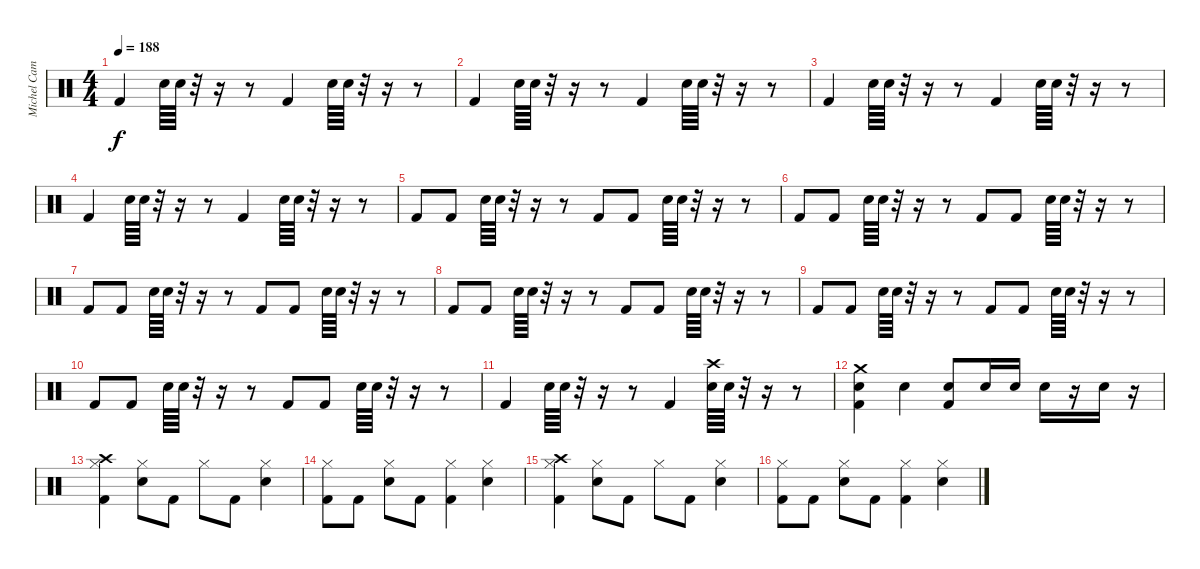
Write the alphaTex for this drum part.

\track ("Michel Camiade" "Michel Cam") {instrument percussion}
\staff {score}
\articulation defaults
\ts (4 4)
\tempo 188
\clef neutral
\ks c "Kick (hit) 2".4{dy f} "Snare (hit) 2".64 "Snare (hit) 2".64
r.32 r.16 r.8 "Kick (hit) 2".4 "Snare (hit) 2".64 "Snare (hit) 2".64 r.32 r.16 r.8 |
"Kick (hit) 2".4 "Snare (hit) 2".64 "Snare (hit) 2".64 r.32 r.16 r.8 "Kick (hit) 2".4 "Snare (hit) 2".64 "Snare (hit) 2".64 r.32 r.16 r.8 |
"Kick (hit) 2".4 "Snare (hit) 2".64 "Snare (hit) 2".64 r.32 r.16 r.8 "Kick (hit) 2".4 "Snare (hit) 2".64 "Snare (hit) 2".64 r.32 r.16 r.8 |
"Kick (hit) 2".4 "Snare (hit) 2".64 "Snare (hit) 2".64 r.32 r.16 r.8 "Kick (hit) 2".4 "Snare (hit) 2".64 "Snare (hit) 2".64 r.32 r.16 r.8 |
"Kick (hit) 2".8 "Kick (hit) 2".8 "Snare (hit) 2".64 "Snare (hit) 2".64 r.32 r.16 r.8 "Kick (hit) 2".8 "Kick (hit) 2".8 "Snare (hit) 2".64 "Snare (hit) 2".64 r.32 r.16 r.8 |
"Kick (hit) 2".8 "Kick (hit) 2".8 "Snare (hit) 2".64 "Snare (hit) 2".64 r.32 r.16 r.8 "Kick (hit) 2".8 "Kick (hit) 2".8 "Snare (hit) 2".64 "Snare (hit) 2".64 r.32 r.16 r.8 |
"Kick (hit) 2".8 "Kick (hit) 2".8 "Snare (hit) 2".64 "Snare (hit) 2".64 r.32 r.16 r.8 "Kick (hit) 2".8 "Kick (hit) 2".8 "Snare (hit) 2".64 "Snare (hit) 2".64 r.32 r.16 r.8 |
"Kick (hit) 2".8 "Kick (hit) 2".8 "Snare (hit) 2".64 "Snare (hit) 2".64 r.32 r.16 r.8 "Kick (hit) 2".8 "Kick (hit) 2".8 "Snare (hit) 2".64 "Snare (hit) 2".64 r.32 r.16 r.8 |
"Kick (hit) 2".8 "Kick (hit) 2".8 "Snare (hit) 2".64 "Snare (hit) 2".64 r.32 r.16 r.8 "Kick (hit) 2".8 "Kick (hit) 2".8 "Snare (hit) 2".64 "Snare (hit) 2".64 r.32 r.16 r.8 |
"Kick (hit) 2".8 "Kick (hit) 2".8 "Snare (hit) 2".64 "Snare (hit) 2".64 r.32 r.16 r.8 "Kick (hit) 2".8 "Kick (hit) 2".8 "Snare (hit) 2".64 "Snare (hit) 2".64 r.32 r.16 r.8 |
"Kick (hit) 2".4 "Snare (hit) 2".64 "Snare (hit) 2".64 r.32 r.16 r.8 "Kick (hit) 2".4 ("Crash high (hit)" "Snare (hit) 2").64 "Snare (hit) 2".64 r.32 r.16 r.8 |
("Crash medium (hit)" "Snare (hit) 2" "Kick (hit) 2").4 "Snare (hit) 2".4 ("Snare (hit) 2" "Kick (hit) 2").8 "Snare (hit) 2".16 "Snare (hit) 2".16 "Snare (hit) 2".16 r.16 "Snare (hit) 2".16 r.16 |
("Crash high (hit)" "Hi-Hat (closed)" "Kick (hit) 2").4 ("Hi-Hat (closed)" "Snare (hit) 2").8 "Kick (hit) 2".8 "Hi-Hat (closed)".8 "Kick (hit) 2".8 ("Hi-Hat (closed)" "Snare (hit) 2").4 |
("Hi-Hat (closed)" "Kick (hit) 2").8 "Kick (hit) 2".8 ("Hi-Hat (closed)" "Snare (hit) 2").8 "Kick (hit) 2".8 ("Hi-Hat (closed)" "Kick (hit) 2").4 ("Hi-Hat (closed)" "Snare (hit) 2").4 |
("Crash high (hit)" "Hi-Hat (closed)" "Kick (hit) 2").4 ("Hi-Hat (closed)" "Snare (hit) 2").8 "Kick (hit) 2".8 "Hi-Hat (closed)".8 "Kick (hit) 2".8 ("Hi-Hat (closed)" "Snare (hit) 2").4 |
("Hi-Hat (closed)" "Kick (hit) 2").8 "Kick (hit) 2".8 ("Hi-Hat (closed)" "Snare (hit) 2").8 "Kick (hit) 2".8 ("Hi-Hat (closed)" "Kick (hit) 2").4 ("Hi-Hat (closed)" "Snare (hit) 2").4
